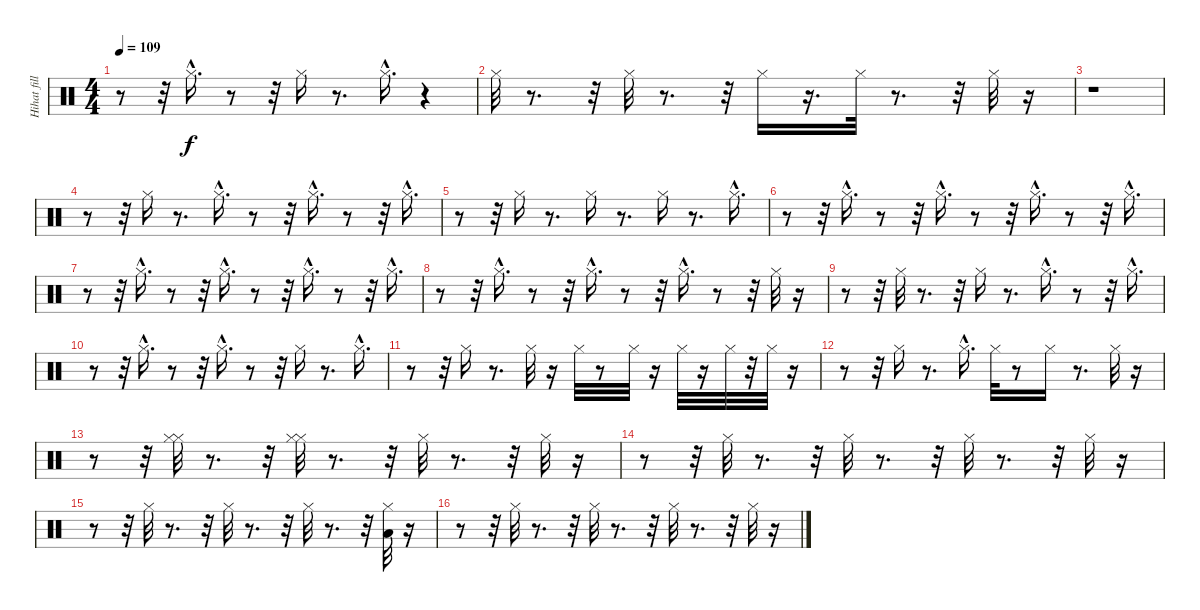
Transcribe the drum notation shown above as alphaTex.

\track ("Hihat fills     " "Hihat fill") {instrument percussion}
\staff {score}
\articulation defaults
\ts (4 4)
\tempo 109
\clef neutral
\ks c
r.8{dy f} r.32 "Hi-Hat (closed)"{hac}.16{d} r.8 r.32 "Hi-Hat (closed)".16 r.8{d} "Hi-Hat (closed)"{hac}.16{d} r.4 |
"Hi-Hat (closed)".32 r.8{d} r.32 "Hi-Hat (closed)".32 r.8{d} r.32 "Hi-Hat (closed)".16 r.16{d} "Hi-Hat (closed)".32 r.8{d} r.32 "Hi-Hat (closed)".32 r.16 |
r.1 |
r.8 r.32 "Hi-Hat (closed)".16 r.8{d} "Hi-Hat (closed)"{hac}.16{d} r.8 r.32 "Hi-Hat (closed)"{hac}.16{d} r.8 r.32 "Hi-Hat (closed)"{hac}.16{d} |
r.8 r.32 "Hi-Hat (closed)".16 r.8{d} "Hi-Hat (closed)".16 r.8{d} "Hi-Hat (closed)".16 r.8{d} "Hi-Hat (closed)"{hac}.16{d} |
r.8 r.32 "Hi-Hat (closed)"{hac}.16{d} r.8 r.32 "Hi-Hat (closed)"{hac}.16{d} r.8 r.32 "Hi-Hat (closed)"{hac}.16{d} r.8 r.32 "Hi-Hat (closed)"{hac}.16{d} |
r.8 r.32 "Hi-Hat (closed)"{hac}.16{d} r.8 r.32 "Hi-Hat (closed)"{hac}.16{d} r.8 r.32 "Hi-Hat (closed)"{hac}.16{d} r.8 r.32 "Hi-Hat (closed)"{hac}.16{d} |
r.8 r.32 "Hi-Hat (closed)"{hac}.16{d} r.8 r.32 "Hi-Hat (closed)"{hac}.16{d} r.8 r.32 "Hi-Hat (closed)"{hac}.16{d} r.8 r.32 "Hi-Hat (closed)".32 r.16 |
r.8 r.32 "Hi-Hat (closed)".32 r.8{d} r.32 "Hi-Hat (closed)".16 r.8{d} "Hi-Hat (closed)"{hac}.16{d} r.8 r.32 "Hi-Hat (closed)"{hac}.16{d} |
r.8 r.32 "Hi-Hat (closed)"{hac}.16{d} r.8 r.32 "Hi-Hat (closed)"{hac}.16{d} r.8 r.32 "Hi-Hat (closed)".16 r.8{d} "Hi-Hat (closed)"{hac}.16{d} |
r.8 r.32 "Hi-Hat (closed)".16 r.8{d} "Hi-Hat (closed)".32 r.16 "Hi-Hat (closed)".32 r.8 "Hi-Hat (closed)".32 r.16 "Hi-Hat (closed)".32 r.16 "Hi-Hat (closed)".32 r.32 "Hi-Hat (closed)".32 r.16 |
r.8 r.32 "Hi-Hat (closed)".16 r.8{d} "Hi-Hat (closed)"{hac}.16{d} "Hi-Hat (closed)".32 r.8 "Hi-Hat (closed)".16 r.8{d} "Hi-Hat (closed)".32 r.16 |
r.8 r.32 ("Hi-Hat (closed)" "Hi-Hat (closed)").32 r.8{d} r.32 ("Hi-Hat (closed)" "Hi-Hat (closed)").32 r.8{d} r.32 "Hi-Hat (closed)".32 r.8{d} r.32 "Hi-Hat (closed)".32 r.16 |
r.8 r.32 "Hi-Hat (closed)".32 r.8{d} r.32 "Hi-Hat (closed)".32 r.8{d} r.32 "Hi-Hat (closed)".32 r.8{d} r.32 "Hi-Hat (closed)".32 r.16 |
r.8 r.32 "Hi-Hat (closed)".32 r.8{d} r.32 "Hi-Hat (closed)".32 r.8{d} r.32 "Hi-Hat (closed)".32 r.8{d} r.32 ("Hi-Hat (closed)" "Low Floor Tom (hit)").32 r.16 |
r.8 r.32 "Hi-Hat (closed)".32 r.8{d} r.32 "Hi-Hat (closed)".32 r.8{d} r.32 "Hi-Hat (closed)".32 r.8{d} r.32 "Hi-Hat (closed)".32 r.16
